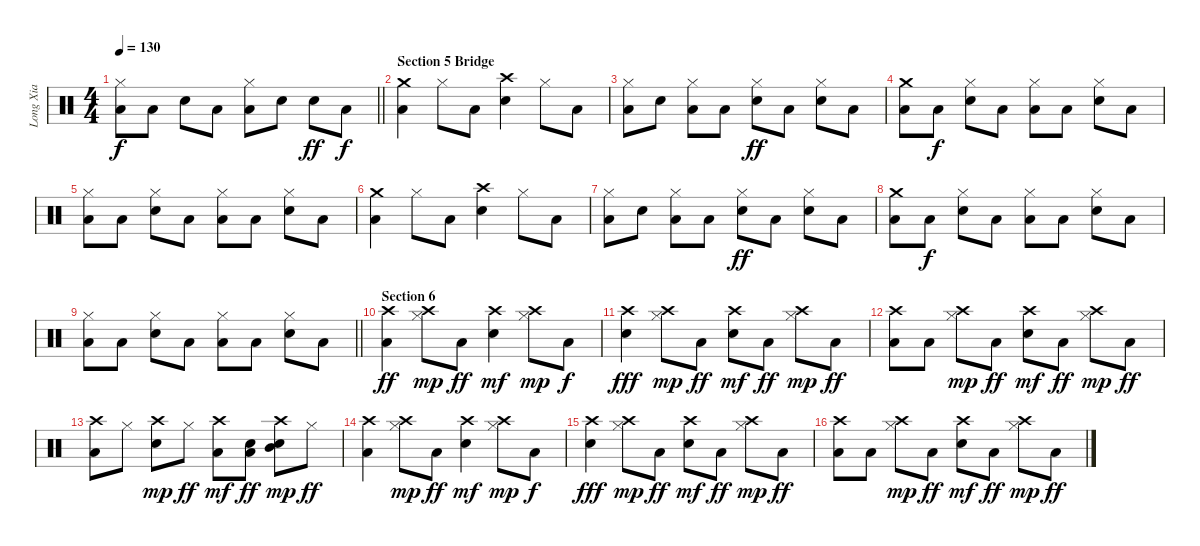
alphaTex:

\track ("Long Xia" "Long Xia") {instrument percussion}
\staff {score}
\articulation defaults
\ts (4 4)
\tempo 130
\clef neutral
\barLineRight lightlight
\ks c
("Low Floor Tom (hit)" "Hi-Hat (closed)").8{dy f} "Low Floor Tom (hit)".8 "Electric Snare (hit)".8 "Low Floor Tom (hit)".8 ("Low Floor Tom (hit)" "Hi-Hat (closed)").8 "Electric Snare (hit)".8 "Electric Snare (hit)".8{dy ff} "Low Floor Tom (hit)".8{dy f} |
\section ("" "Section 5 Bridge")
("Low Floor Tom (hit)" "Crash medium (hit)").4 "Hi-Hat (closed)".8 "Low Floor Tom (hit)".8 ("Electric Snare (hit)" "Crash high (hit)").4 "Hi-Hat (closed)".8 "Low Floor Tom (hit)".8 |
("Low Floor Tom (hit)" "Hi-Hat (closed)").8 "Electric Snare (hit)".8 ("Low Floor Tom (hit)" "Hi-Hat (closed)").8 "Low Floor Tom (hit)".8 ("Electric Snare (hit)" "Hi-Hat (closed)").8{dy ff} "Low Floor Tom (hit)".8 ("Electric Snare (hit)" "Hi-Hat (closed)").8 "Low Floor Tom (hit)".8 |
("Low Floor Tom (hit)" "Crash medium (hit)").8 "Low Floor Tom (hit)".8{dy f} ("Electric Snare (hit)" "Hi-Hat (closed)").8 "Low Floor Tom (hit)".8 ("Low Floor Tom (hit)" "Hi-Hat (closed)").8 "Low Floor Tom (hit)".8 ("Electric Snare (hit)" "Hi-Hat (closed)").8 "Low Floor Tom (hit)".8 |
("Low Floor Tom (hit)" "Hi-Hat (closed)").8 "Low Floor Tom (hit)".8 ("Electric Snare (hit)" "Hi-Hat (closed)").8 "Low Floor Tom (hit)".8 ("Low Floor Tom (hit)" "Hi-Hat (closed)").8 "Low Floor Tom (hit)".8 ("Electric Snare (hit)" "Hi-Hat (closed)").8 "Low Floor Tom (hit)".8 |
("Low Floor Tom (hit)" "Crash medium (hit)").4 "Hi-Hat (closed)".8 "Low Floor Tom (hit)".8 ("Electric Snare (hit)" "Crash high (hit)").4 "Hi-Hat (closed)".8 "Low Floor Tom (hit)".8 |
("Low Floor Tom (hit)" "Hi-Hat (closed)").8 "Electric Snare (hit)".8 ("Low Floor Tom (hit)" "Hi-Hat (closed)").8 "Low Floor Tom (hit)".8 ("Electric Snare (hit)" "Hi-Hat (closed)").8{dy ff} "Low Floor Tom (hit)".8 ("Electric Snare (hit)" "Hi-Hat (closed)").8 "Low Floor Tom (hit)".8 |
("Low Floor Tom (hit)" "Crash medium (hit)").8 "Low Floor Tom (hit)".8{dy f} ("Electric Snare (hit)" "Hi-Hat (closed)").8 "Low Floor Tom (hit)".8 ("Low Floor Tom (hit)" "Hi-Hat (closed)").8 "Low Floor Tom (hit)".8 ("Electric Snare (hit)" "Hi-Hat (closed)").8 "Low Floor Tom (hit)".8 |
\barLineRight lightlight
("Low Floor Tom (hit)" "Hi-Hat (closed)").8 "Low Floor Tom (hit)".8 ("Electric Snare (hit)" "Hi-Hat (closed)").8 "Low Floor Tom (hit)".8 ("Low Floor Tom (hit)" "Hi-Hat (closed)").8 "Low Floor Tom (hit)".8 ("Electric Snare (hit)" "Hi-Hat (closed)").8 "Low Floor Tom (hit)".8 |
\section ("" "Section 6")
("Low Floor Tom (hit)" "Crash high (hit)").4{dy ff} ("Hi-Hat (closed)" "Crash high (hit)").8{dy mp} "Low Floor Tom (hit)".8{dy ff} ("Electric Snare (hit)" "Crash high (hit)").4{dy mf} ("Hi-Hat (closed)" "Crash high (hit)").8{dy mp} "Low Floor Tom (hit)".8{dy f} |
("Electric Snare (hit)" "Crash high (hit)").4{dy fff} ("Hi-Hat (closed)" "Crash high (hit)").8{dy mp} "Low Floor Tom (hit)".8{dy ff} ("Electric Snare (hit)" "Crash high (hit)").8{dy mf} "Low Floor Tom (hit)".8{dy ff} ("Hi-Hat (closed)" "Crash high (hit)").8{dy mp} "Low Floor Tom (hit)".8{dy ff} |
("Low Floor Tom (hit)" "Crash high (hit)").8 "Low Floor Tom (hit)".8 ("Hi-Hat (closed)" "Crash high (hit)").8{dy mp} "Low Floor Tom (hit)".8{dy ff} ("Electric Snare (hit)" "Crash high (hit)").8{dy mf} "Low Floor Tom (hit)".8{dy ff} ("Hi-Hat (closed)" "Crash high (hit)").8{dy mp} "Low Floor Tom (hit)".8{dy ff} |
("Low Floor Tom (hit)" "Crash high (hit)").8 "Hi-Hat (closed)".8 ("Electric Snare (hit)" "Crash high (hit)").8{dy mp} "Hi-Hat (closed)".8{dy ff} ("Low Floor Tom (hit)" "Crash high (hit)").8{dy mf} ("Electric Snare (hit)" "Low Tom (hit)").8{dy ff} ("Electric Snare (hit)" "Mid Tom (hit)" "Crash high (hit)").8{dy mp} "Hi-Hat (closed)".8{dy ff} |
("Low Floor Tom (hit)" "Crash high (hit)").4 ("Hi-Hat (closed)" "Crash high (hit)").8{dy mp} "Low Floor Tom (hit)".8{dy ff} ("Electric Snare (hit)" "Crash high (hit)").4{dy mf} ("Hi-Hat (closed)" "Crash high (hit)").8{dy mp} "Low Floor Tom (hit)".8{dy f} |
("Electric Snare (hit)" "Crash high (hit)").4{dy fff} ("Hi-Hat (closed)" "Crash high (hit)").8{dy mp} "Low Floor Tom (hit)".8{dy ff} ("Electric Snare (hit)" "Crash high (hit)").8{dy mf} "Low Floor Tom (hit)".8{dy ff} ("Hi-Hat (closed)" "Crash high (hit)").8{dy mp} "Low Floor Tom (hit)".8{dy ff} |
("Low Floor Tom (hit)" "Crash high (hit)").8 "Low Floor Tom (hit)".8 ("Hi-Hat (closed)" "Crash high (hit)").8{dy mp} "Low Floor Tom (hit)".8{dy ff} ("Electric Snare (hit)" "Crash high (hit)").8{dy mf} "Low Floor Tom (hit)".8{dy ff} ("Hi-Hat (closed)" "Crash high (hit)").8{dy mp} "Low Floor Tom (hit)".8{dy ff}
